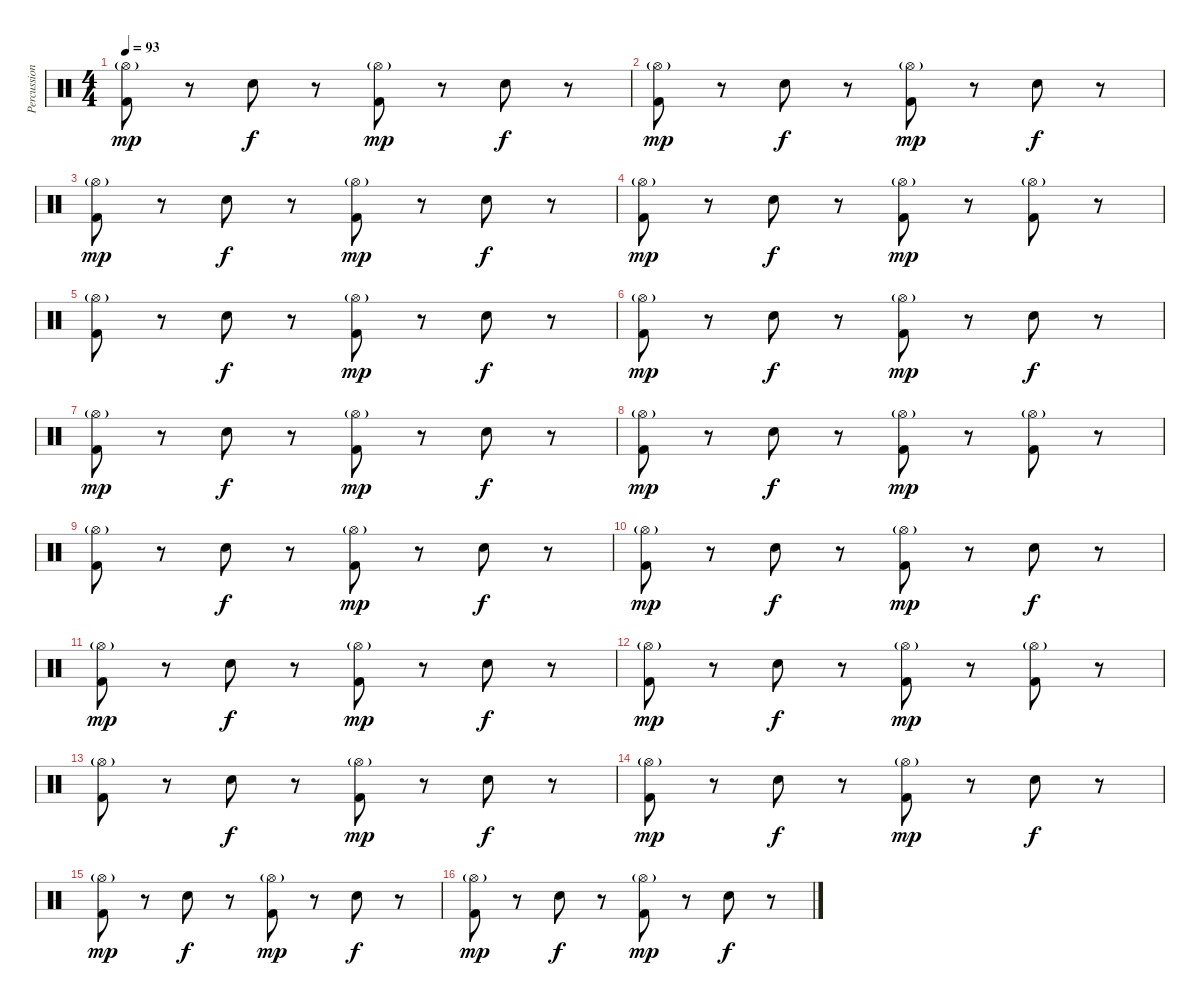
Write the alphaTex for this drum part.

\track ("Percussion" "Percussion") {instrument percussion}
\staff {score}
\articulation defaults
\ts (4 4)
\tempo 93
\clef neutral
\ks c
("Hi-Hat (open)"{g} "Kick (hit) 2").8{dy mp} r.8 "Snare (hit) 2".8{dy f} r.8 ("Hi-Hat (open)"{g} "Kick (hit) 2").8{dy mp} r.8 "Snare (hit) 2".8{dy f} r.8 |
("Hi-Hat (open)"{g} "Kick (hit) 2").8{dy mp} r.8 "Snare (hit) 2".8{dy f} r.8 ("Hi-Hat (open)"{g} "Kick (hit) 2").8{dy mp} r.8 "Snare (hit) 2".8{dy f} r.8 |
("Hi-Hat (open)"{g} "Kick (hit) 2").8{dy mp} r.8 "Snare (hit) 2".8{dy f} r.8 ("Hi-Hat (open)"{g} "Kick (hit) 2").8{dy mp} r.8 "Snare (hit) 2".8{dy f} r.8 |
("Hi-Hat (open)"{g} "Kick (hit) 2").8{dy mp} r.8 "Snare (hit) 2".8{dy f} r.8 ("Hi-Hat (open)"{g} "Kick (hit) 2").8{dy mp} r.8 ("Hi-Hat (open)"{g} "Kick (hit) 2").8 r.8 |
("Hi-Hat (open)"{g} "Kick (hit) 2").8 r.8 "Snare (hit) 2".8{dy f} r.8 ("Hi-Hat (open)"{g} "Kick (hit) 2").8{dy mp} r.8 "Snare (hit) 2".8{dy f} r.8 |
("Hi-Hat (open)"{g} "Kick (hit) 2").8{dy mp} r.8 "Snare (hit) 2".8{dy f} r.8 ("Hi-Hat (open)"{g} "Kick (hit) 2").8{dy mp} r.8 "Snare (hit) 2".8{dy f} r.8 |
("Hi-Hat (open)"{g} "Kick (hit) 2").8{dy mp} r.8 "Snare (hit) 2".8{dy f} r.8 ("Hi-Hat (open)"{g} "Kick (hit) 2").8{dy mp} r.8 "Snare (hit) 2".8{dy f} r.8 |
("Hi-Hat (open)"{g} "Kick (hit) 2").8{dy mp} r.8 "Snare (hit) 2".8{dy f} r.8 ("Hi-Hat (open)"{g} "Kick (hit) 2").8{dy mp} r.8 ("Hi-Hat (open)"{g} "Kick (hit) 2").8 r.8 |
("Hi-Hat (open)"{g} "Kick (hit) 2").8 r.8 "Snare (hit) 2".8{dy f} r.8 ("Hi-Hat (open)"{g} "Kick (hit) 2").8{dy mp} r.8 "Snare (hit) 2".8{dy f} r.8 |
("Hi-Hat (open)"{g} "Kick (hit) 2").8{dy mp} r.8 "Snare (hit) 2".8{dy f} r.8 ("Hi-Hat (open)"{g} "Kick (hit) 2").8{dy mp} r.8 "Snare (hit) 2".8{dy f} r.8 |
("Hi-Hat (open)"{g} "Kick (hit) 2").8{dy mp} r.8 "Snare (hit) 2".8{dy f} r.8 ("Hi-Hat (open)"{g} "Kick (hit) 2").8{dy mp} r.8 "Snare (hit) 2".8{dy f} r.8 |
("Hi-Hat (open)"{g} "Kick (hit) 2").8{dy mp} r.8 "Snare (hit) 2".8{dy f} r.8 ("Hi-Hat (open)"{g} "Kick (hit) 2").8{dy mp} r.8 ("Hi-Hat (open)"{g} "Kick (hit) 2").8 r.8 |
("Hi-Hat (open)"{g} "Kick (hit) 2").8 r.8 "Snare (hit) 2".8{dy f} r.8 ("Hi-Hat (open)"{g} "Kick (hit) 2").8{dy mp} r.8 "Snare (hit) 2".8{dy f} r.8 |
("Hi-Hat (open)"{g} "Kick (hit) 2").8{dy mp} r.8 "Snare (hit) 2".8{dy f} r.8 ("Hi-Hat (open)"{g} "Kick (hit) 2").8{dy mp} r.8 "Snare (hit) 2".8{dy f} r.8 |
("Hi-Hat (open)"{g} "Kick (hit) 2").8{dy mp} r.8 "Snare (hit) 2".8{dy f} r.8 ("Hi-Hat (open)"{g} "Kick (hit) 2").8{dy mp} r.8 "Snare (hit) 2".8{dy f} r.8 |
("Hi-Hat (open)"{g} "Kick (hit) 2").8{dy mp} r.8 "Snare (hit) 2".8{dy f} r.8 ("Hi-Hat (open)"{g} "Kick (hit) 2").8{dy mp} r.8 "Snare (hit) 2".8{dy f} r.8
